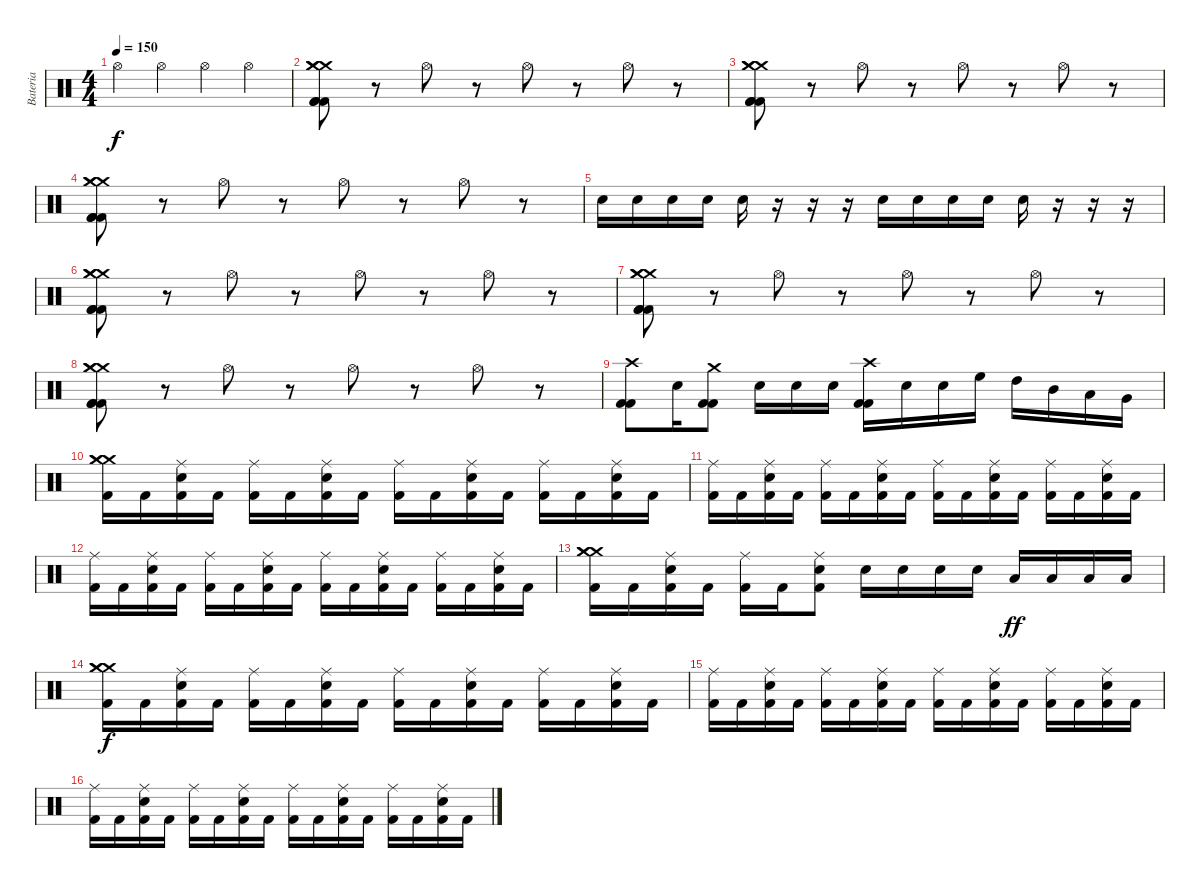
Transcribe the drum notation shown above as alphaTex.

\track ("Bateria" "Bateria") {instrument percussion}
\staff {score}
\articulation defaults
\ts (4 4)
\tempo 150
\clef neutral
\ks c "Hi-Hat (open)".4{dy f} "Hi-Hat (open)".4 "Hi-Hat (open)".4 "Hi-Hat (open)".4
|
("Crash medium (hit)" "Crash medium (hit)" "Crash medium (hit)" "Kick (hit) 2" "Kick (hit) 2" "Kick (hit) 2").8 r.8 "Hi-Hat (open)".8 r.8 "Hi-Hat (open)".8 r.8 "Hi-Hat (open)".8 r.8 |
("Crash medium (hit)" "Crash medium (hit)" "Crash medium (hit)" "Kick (hit) 2" "Kick (hit) 2" "Kick (hit) 2").8 r.8 "Hi-Hat (open)".8 r.8 "Hi-Hat (open)".8 r.8 "Hi-Hat (open)".8 r.8 |
("Crash medium (hit)" "Crash medium (hit)" "Crash medium (hit)" "Kick (hit) 2" "Kick (hit) 2" "Kick (hit) 2").8 r.8 "Hi-Hat (open)".8 r.8 "Hi-Hat (open)".8 r.8 "Hi-Hat (open)".8 r.8 |
"Electric Snare (hit)".16 "Electric Snare (hit)".16 "Electric Snare (hit)".16 "Electric Snare (hit)".16 "Electric Snare (hit)".16 r.16 r.16 r.16 "Electric Snare (hit)".16 "Electric Snare (hit)".16 "Electric Snare (hit)".16 "Electric Snare (hit)".16 "Electric Snare (hit)".16 r.16 r.16 r.16 |
("Crash medium (hit)" "Crash medium (hit)" "Crash medium (hit)" "Kick (hit) 2" "Kick (hit) 2" "Kick (hit) 2").8 r.8 "Hi-Hat (open)".8 r.8 "Hi-Hat (open)".8 r.8 "Hi-Hat (open)".8 r.8 |
("Crash medium (hit)" "Crash medium (hit)" "Crash medium (hit)" "Kick (hit) 2" "Kick (hit) 2" "Kick (hit) 2").8 r.8 "Hi-Hat (open)".8 r.8 "Hi-Hat (open)".8 r.8 "Hi-Hat (open)".8 r.8 |
("Crash medium (hit)" "Crash medium (hit)" "Crash medium (hit)" "Kick (hit) 2" "Kick (hit) 2" "Kick (hit) 2").8 r.8 "Hi-Hat (open)".8 r.8 "Hi-Hat (open)".8 r.8 "Hi-Hat (open)".8 r.8 |
("Kick (hit) 2" "Kick (hit) 2" "Crash high (hit)").8 "Snare (hit) 2".16 ("Kick (hit) 2" "Kick (hit) 2" "Crash medium (hit)").8 "Snare (hit) 2".16 "Snare (hit) 2".16 "Snare (hit) 2".16 ("Kick (hit) 2" "Kick (hit) 2" "Crash high (hit)").16 "Snare (hit) 2".16 "Snare (hit) 2".16 "High Floor Tom (hit)".16 "High Tom (hit)".16 "Mid Tom (hit)".16 "Low Tom (hit)".16 "Very Low Tom (hit)".16 |
("Crash medium (hit)" "Crash medium (hit)" "Crash medium (hit)" "Kick (hit) 2").16 "Kick (hit) 2".16 ("Ride (middle)" "Snare (hit) 2" "Kick (hit) 2").16 "Kick (hit) 2".16 ("Ride (middle)" "Kick (hit) 2").16 "Kick (hit) 2".16 ("Ride (middle)" "Snare (hit) 2" "Kick (hit) 2").16 "Kick (hit) 2".16 ("Ride (middle)" "Kick (hit) 2").16 "Kick (hit) 2".16 ("Ride (middle)" "Snare (hit) 2" "Kick (hit) 2").16 "Kick (hit) 2".16 ("Ride (middle)" "Kick (hit) 2").16 "Kick (hit) 2".16 ("Ride (middle)" "Snare (hit) 2" "Kick (hit) 2").16 "Kick (hit) 2".16 |
("Ride (middle)" "Kick (hit) 2").16 "Kick (hit) 2".16 ("Ride (middle)" "Snare (hit) 2" "Kick (hit) 2").16 "Kick (hit) 2".16 ("Ride (middle)" "Kick (hit) 2").16 "Kick (hit) 2".16 ("Ride (middle)" "Snare (hit) 2" "Kick (hit) 2").16 "Kick (hit) 2".16 ("Ride (middle)" "Kick (hit) 2").16 "Kick (hit) 2".16 ("Ride (middle)" "Snare (hit) 2" "Kick (hit) 2").16 "Kick (hit) 2".16 ("Ride (middle)" "Kick (hit) 2").16 "Kick (hit) 2".16 ("Ride (middle)" "Snare (hit) 2" "Kick (hit) 2").16 "Kick (hit) 2".16 |
("Ride (middle)" "Kick (hit) 2").16 "Kick (hit) 2".16 ("Ride (middle)" "Snare (hit) 2" "Kick (hit) 2").16 "Kick (hit) 2".16 ("Ride (middle)" "Kick (hit) 2").16 "Kick (hit) 2".16 ("Ride (middle)" "Snare (hit) 2" "Kick (hit) 2").16 "Kick (hit) 2".16 ("Ride (middle)" "Kick (hit) 2").16 "Kick (hit) 2".16 ("Ride (middle)" "Snare (hit) 2" "Kick (hit) 2").16 "Kick (hit) 2".16 ("Ride (middle)" "Kick (hit) 2").16 "Kick (hit) 2".16 ("Ride (middle)" "Snare (hit) 2" "Kick (hit) 2").16 "Kick (hit) 2".16 |
("Crash medium (hit)" "Crash medium (hit)" "Crash medium (hit)" "Kick (hit) 2").16 "Kick (hit) 2".16 ("Ride (middle)" "Snare (hit) 2" "Kick (hit) 2").16 "Kick (hit) 2".16 ("Ride (middle)" "Kick (hit) 2").16 "Kick (hit) 2".16 ("Ride (middle)" "Snare (hit) 2" "Kick (hit) 2").8 "Snare (hit) 2".16 "Snare (hit) 2".16 "Snare (hit) 2".16 "Snare (hit) 2".16 "Low Tom (hit)".16{dy ff} "Low Tom (hit)".16 "Low Tom (hit)".16 "Low Tom (hit)".16 |
("Crash medium (hit)" "Crash medium (hit)" "Crash medium (hit)" "Kick (hit) 2").16{dy f} "Kick (hit) 2".16 ("Ride (middle)" "Snare (hit) 2" "Kick (hit) 2").16 "Kick (hit) 2".16 ("Ride (middle)" "Kick (hit) 2").16 "Kick (hit) 2".16 ("Ride (middle)" "Snare (hit) 2" "Kick (hit) 2").16 "Kick (hit) 2".16 ("Ride (middle)" "Kick (hit) 2").16 "Kick (hit) 2".16 ("Ride (middle)" "Snare (hit) 2" "Kick (hit) 2").16 "Kick (hit) 2".16 ("Ride (middle)" "Kick (hit) 2").16 "Kick (hit) 2".16 ("Ride (middle)" "Snare (hit) 2" "Kick (hit) 2").16 "Kick (hit) 2".16 |
("Ride (middle)" "Kick (hit) 2").16 "Kick (hit) 2".16 ("Ride (middle)" "Snare (hit) 2" "Kick (hit) 2").16 "Kick (hit) 2".16 ("Ride (middle)" "Kick (hit) 2").16 "Kick (hit) 2".16 ("Ride (middle)" "Snare (hit) 2" "Kick (hit) 2").16 "Kick (hit) 2".16 ("Ride (middle)" "Kick (hit) 2").16 "Kick (hit) 2".16 ("Ride (middle)" "Snare (hit) 2" "Kick (hit) 2").16 "Kick (hit) 2".16 ("Ride (middle)" "Kick (hit) 2").16 "Kick (hit) 2".16 ("Ride (middle)" "Snare (hit) 2" "Kick (hit) 2").16 "Kick (hit) 2".16 |
("Ride (middle)" "Kick (hit) 2").16 "Kick (hit) 2".16 ("Ride (middle)" "Snare (hit) 2" "Kick (hit) 2").16 "Kick (hit) 2".16 ("Ride (middle)" "Kick (hit) 2").16 "Kick (hit) 2".16 ("Ride (middle)" "Snare (hit) 2" "Kick (hit) 2").16 "Kick (hit) 2".16 ("Ride (middle)" "Kick (hit) 2").16 "Kick (hit) 2".16 ("Ride (middle)" "Snare (hit) 2" "Kick (hit) 2").16 "Kick (hit) 2".16 ("Ride (middle)" "Kick (hit) 2").16 "Kick (hit) 2".16 ("Ride (middle)" "Snare (hit) 2" "Kick (hit) 2").16 "Kick (hit) 2".16
